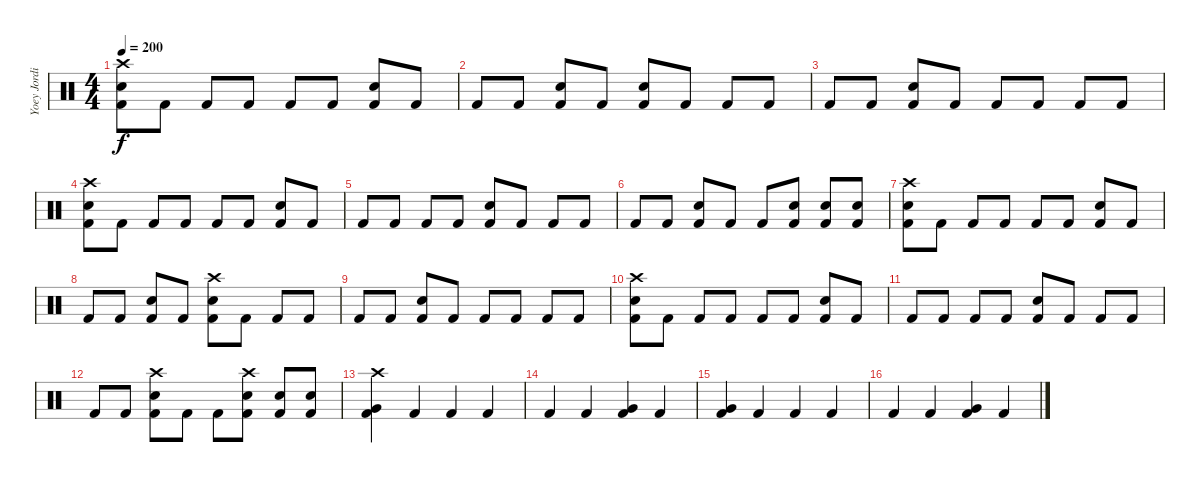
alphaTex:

\track ("Yoey Jordison" "Yoey Jordi") {instrument percussion}
\staff {score}
\articulation defaults
\ts (4 4)
\tempo 200
\clef neutral
\ks c
("Crash high (hit)" "Snare (hit) 2" "Kick (hit) 2").8{dy f} "Kick (hit) 2".8 "Kick (hit) 2".8 "Kick (hit) 2".8 "Kick (hit) 2".8 "Kick (hit) 2".8 ("Snare (hit) 2" "Kick (hit) 2").8 "Kick (hit) 2".8 |
"Kick (hit) 2".8 "Kick (hit) 2".8 ("Electric Snare (hit)" "Kick (hit) 2").8 "Kick (hit) 2".8 ("Snare (hit) 2" "Kick (hit) 2").8 "Kick (hit) 2".8 "Kick (hit) 2".8 "Kick (hit) 2".8 |
"Kick (hit) 2".8 "Kick (hit) 2".8 ("Snare (hit) 2" "Kick (hit) 2").8 "Kick (hit) 2".8 "Kick (hit) 2".8 "Kick (hit) 2".8 "Kick (hit) 2".8 "Kick (hit) 2".8 |
("Crash high (hit)" "Electric Snare (hit)" "Kick (hit) 2").8 "Kick (hit) 2".8 "Kick (hit) 2".8 "Kick (hit) 2".8 "Kick (hit) 2".8 "Kick (hit) 2".8 ("Electric Snare (hit)" "Kick (hit) 2").8 "Kick (hit) 2".8 |
"Kick (hit) 2".8 "Kick (hit) 2".8 "Kick (hit) 2".8 "Kick (hit) 2".8 ("Electric Snare (hit)" "Kick (hit) 2").8 "Kick (hit) 2".8 "Kick (hit) 2".8 "Kick (hit) 2".8 |
"Kick (hit) 2".8 "Kick (hit) 2".8 ("Electric Snare (hit)" "Kick (hit) 2").8 "Kick (hit) 2".8 "Kick (hit) 2".8 ("Electric Snare (hit)" "Kick (hit) 2").8 ("Electric Snare (hit)" "Kick (hit) 2").8 ("Electric Snare (hit)" "Kick (hit) 2").8 |
("Crash high (hit)" "Snare (hit) 2" "Kick (hit) 2").8 "Kick (hit) 2".8 "Kick (hit) 2".8 "Kick (hit) 2".8 "Kick (hit) 2".8 "Kick (hit) 2".8 ("Snare (hit) 2" "Kick (hit) 2").8 "Kick (hit) 2".8 |
"Kick (hit) 2".8 "Kick (hit) 2".8 ("Electric Snare (hit)" "Kick (hit) 2").8 "Kick (hit) 2".8 ("Crash high (hit)" "Snare (hit) 2" "Kick (hit) 2").8 "Kick (hit) 2".8 "Kick (hit) 2".8 "Kick (hit) 2".8 |
"Kick (hit) 2".8 "Kick (hit) 2".8 ("Snare (hit) 2" "Kick (hit) 2").8 "Kick (hit) 2".8 "Kick (hit) 2".8 "Kick (hit) 2".8 "Kick (hit) 2".8 "Kick (hit) 2".8 |
("Crash high (hit)" "Electric Snare (hit)" "Kick (hit) 2").8 "Kick (hit) 2".8 "Kick (hit) 2".8 "Kick (hit) 2".8 "Kick (hit) 2".8 "Kick (hit) 2".8 ("Electric Snare (hit)" "Kick (hit) 2").8 "Kick (hit) 2".8 |
"Kick (hit) 2".8 "Kick (hit) 2".8 "Kick (hit) 2".8 "Kick (hit) 2".8 ("Electric Snare (hit)" "Kick (hit) 2").8 "Kick (hit) 2".8 "Kick (hit) 2".8 "Kick (hit) 2".8 |
"Kick (hit) 2".8 "Kick (hit) 2".8 ("Crash high (hit)" "Electric Snare (hit)" "Kick (hit) 2").8 "Kick (hit) 2".8 "Kick (hit) 2".8 ("Crash high (hit)" "Electric Snare (hit)" "Kick (hit) 2").8 ("Electric Snare (hit)" "Kick (hit) 2").8 ("Electric Snare (hit)" "Kick (hit) 2").8 |
("Crash high (hit)" "Kick (hit) 2" "Very Low Tom (hit)").4 "Kick (hit) 2".4 "Kick (hit) 2".4 "Kick (hit) 2".4 |
"Kick (hit) 2".4 "Kick (hit) 2".4 ("Kick (hit) 2" "Very Low Tom (hit)").4 "Kick (hit) 2".4 |
("Kick (hit) 2" "Very Low Tom (hit)").4 "Kick (hit) 2".4 "Kick (hit) 2".4 "Kick (hit) 2".4 |
"Kick (hit) 2".4 "Kick (hit) 2".4 ("Kick (hit) 2" "Very Low Tom (hit)").4 "Kick (hit) 2".4
